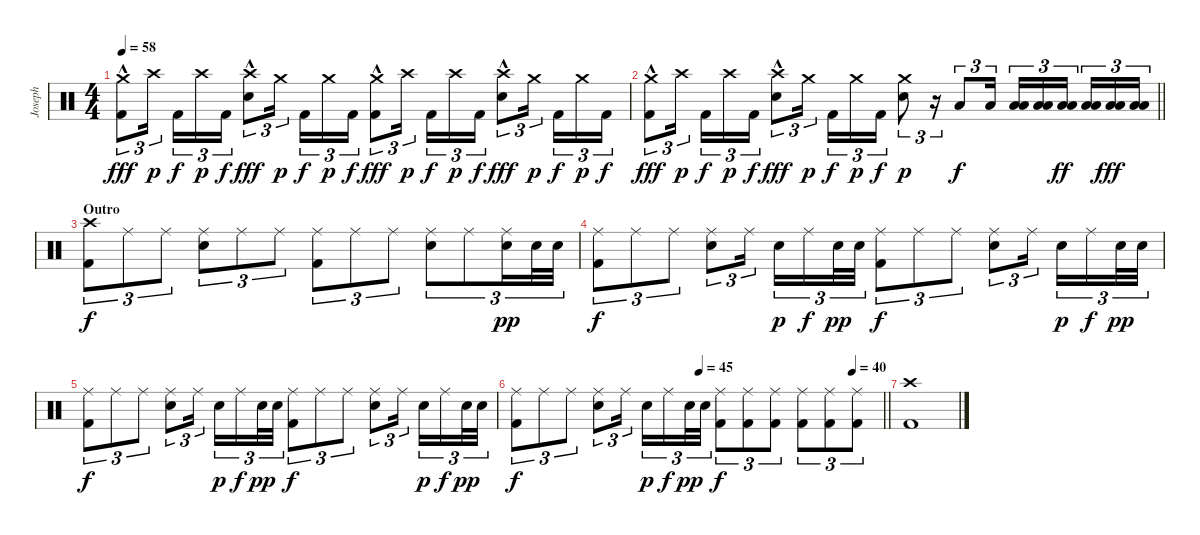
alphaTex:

\track ("Joseph" "Joseph") {instrument percussion}
\staff {score}
\articulation defaults
\ts (4 4)
\tempo 58
\clef neutral
\ks c
("Crash medium (hit)"{hac} "Kick (hit) 2").8{tu (3 2) dy fff} "Crash high (hit)".16{tu (3 2) dy p beam splitsecondary} "Kick (hit) 2".16{tu (3 2) dy f} "Crash high (hit)".16{tu (3 2) dy p} "Kick (hit) 2".16{tu (3 2) dy f} ("Crash high (hit)"{hac} "Electric Snare (hit)").8{tu (3 2) dy fff} "Crash medium (hit)".16{tu (3 2) dy p beam splitsecondary} "Kick (hit) 2".16{tu (3 2) dy f} "Crash medium (hit)".16{tu (3 2) dy p} "Kick (hit) 2".16{tu (3 2) dy f} ("Crash medium (hit)"{hac} "Kick (hit) 2").8{tu (3 2) dy fff} "Crash high (hit)".16{tu (3 2) dy p beam splitsecondary} "Kick (hit) 2".16{tu (3 2) dy f} "Crash high (hit)".16{tu (3 2) dy p} "Kick (hit) 2".16{tu (3 2) dy f} ("Crash high (hit)"{hac} "Electric Snare (hit)").8{tu (3 2) dy fff} "Crash medium (hit)".16{tu (3 2) dy p beam splitsecondary} "Kick (hit) 2".16{tu (3 2) dy f} "Crash medium (hit)".16{tu (3 2) dy p} "Kick (hit) 2".16{tu (3 2) dy f} |
\barLineRight lightlight
("Crash medium (hit)"{hac} "Kick (hit) 2").8{tu (3 2) dy fff} "Crash high (hit)".16{tu (3 2) dy p beam splitsecondary} "Kick (hit) 2".16{tu (3 2) dy f} "Crash high (hit)".16{tu (3 2) dy p} "Kick (hit) 2".16{tu (3 2) dy f} ("Crash high (hit)"{hac} "Electric Snare (hit)").8{tu (3 2) dy fff} "Crash medium (hit)".16{tu (3 2) dy p beam splitsecondary} "Kick (hit) 2".16{tu (3 2) dy f} "Crash medium (hit)".16{tu (3 2) dy p} "Kick (hit) 2".16{tu (3 2) dy f} ("Crash medium (hit)" "Electric Snare (hit)").8{tu (3 2) dy p} r.16{tu (3 2)} "Low Floor Tom (hit)".8{tu (3 2) dy f} "Low Floor Tom (hit)".16{tu (3 2)} ("Low Tom (hit)" "Low Floor Tom (hit)").16{tu (3 2)} ("Low Tom (hit)" "Low Floor Tom (hit)").16{tu (3 2)} ("Low Tom (hit)" "Low Floor Tom (hit)").16{tu (3 2) dy ff beam splitsecondary} ("Low Tom (hit)" "Low Floor Tom (hit)").16{tu (3 2)} ("Low Tom (hit)" "Low Floor Tom (hit)").16{tu (3 2) dy fff} ("Low Tom (hit)" "Low Floor Tom (hit)").16{tu (3 2)} |
\section ("" "Outro")
("Crash high (hit)" "Kick (hit) 2").8{tu (3 2) dy f} "Ride (middle)".8{tu (3 2)} "Ride (middle)".8{tu (3 2)} ("Ride (middle)" "Electric Snare (hit)").8{tu (3 2)} "Ride (middle)".8{tu (3 2)} "Ride (middle)".8{tu (3 2)} ("Ride (middle)" "Kick (hit) 2").8{tu (3 2)} "Ride (middle)".8{tu (3 2)} "Ride (middle)".8{tu (3 2)} ("Ride (middle)" "Electric Snare (hit)").8{tu (3 2)} "Ride (middle)".8{tu (3 2)} ("Ride (middle)" "Electric Snare (hit)").16{tu (3 2) dy pp} "Electric Snare (hit)".32{tu (3 2)} "Electric Snare (hit)".32{tu (3 2)} |
("Ride (middle)" "Kick (hit) 2").8{tu (3 2) dy f} "Ride (middle)".8{tu (3 2)} "Ride (middle)".8{tu (3 2)} ("Ride (middle)" "Electric Snare (hit)").8{tu (3 2)} "Ride (middle)".16{tu (3 2) beam splitsecondary} "Electric Snare (hit)".16{tu (3 2) dy p} "Ride (middle)".16{tu (3 2) dy f} "Electric Snare (hit)".32{tu (3 2) dy pp} "Electric Snare (hit)".32{tu (3 2)} ("Ride (middle)" "Kick (hit) 2").8{tu (3 2) dy f} "Ride (middle)".8{tu (3 2)} "Ride (middle)".8{tu (3 2)} ("Ride (middle)" "Electric Snare (hit)").8{tu (3 2)} "Ride (middle)".16{tu (3 2) beam splitsecondary} "Electric Snare (hit)".16{tu (3 2) dy p} "Ride (middle)".16{tu (3 2) dy f} "Electric Snare (hit)".32{tu (3 2) dy pp} "Electric Snare (hit)".32{tu (3 2)} |
("Ride (middle)" "Kick (hit) 2").8{tu (3 2) dy f} "Ride (middle)".8{tu (3 2)} "Ride (middle)".8{tu (3 2)} ("Ride (middle)" "Electric Snare (hit)").8{tu (3 2)} "Ride (middle)".16{tu (3 2) beam splitsecondary} "Electric Snare (hit)".16{tu (3 2) dy p} "Ride (middle)".16{tu (3 2) dy f} "Electric Snare (hit)".32{tu (3 2) dy pp} "Electric Snare (hit)".32{tu (3 2)} ("Ride (middle)" "Kick (hit) 2").8{tu (3 2) dy f} "Ride (middle)".8{tu (3 2)} "Ride (middle)".8{tu (3 2)} ("Ride (middle)" "Electric Snare (hit)").8{tu (3 2)} "Ride (middle)".16{tu (3 2) beam splitsecondary} "Electric Snare (hit)".16{tu (3 2) dy p} "Ride (middle)".16{tu (3 2) dy f} "Electric Snare (hit)".32{tu (3 2) dy pp} "Electric Snare (hit)".32{tu (3 2)} |
\tempo (45 0.5)
\tempo (40 0.9166666666666666)
\barLineRight lightlight
("Ride (middle)" "Kick (hit) 2").8{tu (3 2) dy f} "Ride (middle)".8{tu (3 2)} "Ride (middle)".8{tu (3 2)} ("Ride (middle)" "Electric Snare (hit)").8{tu (3 2)} "Ride (middle)".16{tu (3 2) beam splitsecondary} "Electric Snare (hit)".16{tu (3 2) dy p} "Ride (middle)".16{tu (3 2) dy f} "Electric Snare (hit)".32{tu (3 2) dy pp} "Electric Snare (hit)".32{tu (3 2)} ("Ride (middle)" "Kick (hit) 2").8{tu (3 2) dy f} ("Ride (middle)" "Kick (hit) 2").8{tu (3 2)} ("Ride (middle)" "Kick (hit) 2").8{tu (3 2)} ("Ride (middle)" "Kick (hit) 2").8{tu (3 2)} ("Ride (middle)" "Kick (hit) 2").8{tu (3 2)} ("Ride (middle)" "Kick (hit) 2").8{tu (3 2)} |
("Crash high (hit)" "Kick (hit) 2").1
